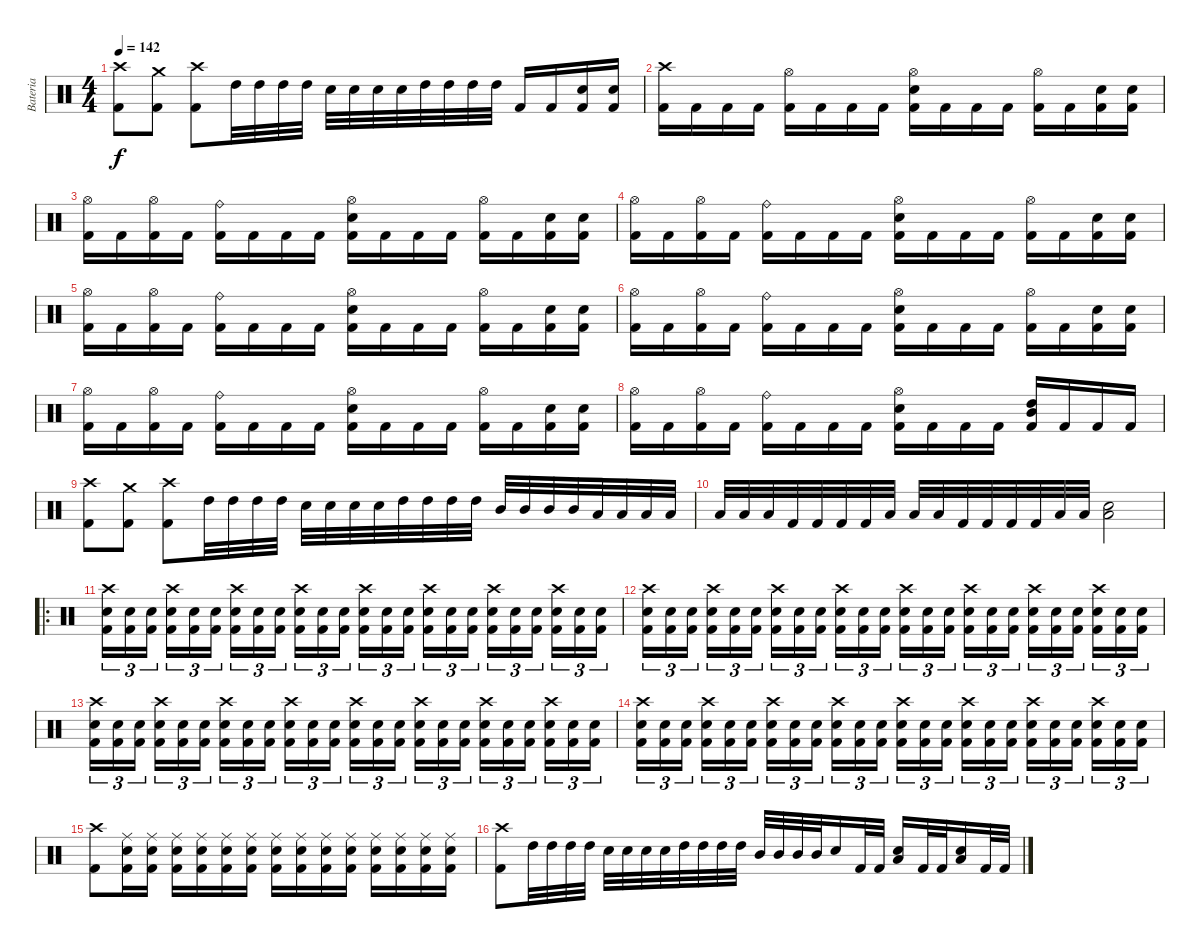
\track ("Bateria" "Bateria") {instrument percussion}
\staff {score}
\articulation defaults
\ts (4 4)
\tempo 142
\clef neutral
\ks c
("Crash high (hit)" "Kick (hit) 2").8{dy f} ("Crash medium (hit)" "Kick (hit) 2").8 ("Crash high (hit)" "Kick (hit) 2").8 "High Tom (hit)".32 "High Tom (hit)".32 "High Tom (hit)".32 "High Tom (hit)".32 "Electric Snare (hit)".32 "Electric Snare (hit)".32 "Electric Snare (hit)".32 "Electric Snare (hit)".32 "High Tom (hit)".32 "High Tom (hit)".32 "High Tom (hit)".32 "High Tom (hit)".32 "Kick (hit) 2".16 "Kick (hit) 2".16 ("Electric Snare (hit)" "Kick (hit) 2").16 ("Electric Snare (hit)" "Kick (hit) 2").16 |
("Crash high (hit)" "Kick (hit) 2").16 "Kick (hit) 2".16 "Kick (hit) 2".16 "Kick (hit) 2".16 ("Hi-Hat (open)" "Kick (hit) 2").16 "Kick (hit) 2".16 "Kick (hit) 2".16 "Kick (hit) 2".16 ("Hi-Hat (open)" "Electric Snare (hit)" "Kick (hit) 2").16 "Kick (hit) 2".16 "Kick (hit) 2".16 "Kick (hit) 2".16 ("Hi-Hat (open)" "Kick (hit) 2").16 "Kick (hit) 2".16 ("Electric Snare (hit)" "Kick (hit) 2").16 ("Electric Snare (hit)" "Kick (hit) 2").16 |
("Hi-Hat (open)" "Kick (hit) 2").16 "Kick (hit) 2".16 ("Hi-Hat (open)" "Kick (hit) 2").16 "Kick (hit) 2".16 ("Ride (bell)" "Kick (hit) 2").16 "Kick (hit) 2".16 "Kick (hit) 2".16 "Kick (hit) 2".16 ("Hi-Hat (open)" "Electric Snare (hit)" "Kick (hit) 2").16 "Kick (hit) 2".16 "Kick (hit) 2".16 "Kick (hit) 2".16 ("Hi-Hat (open)" "Kick (hit) 2").16 "Kick (hit) 2".16 ("Electric Snare (hit)" "Kick (hit) 2").16 ("Electric Snare (hit)" "Kick (hit) 2").16 |
("Hi-Hat (open)" "Kick (hit) 2").16 "Kick (hit) 2".16 ("Hi-Hat (open)" "Kick (hit) 2").16 "Kick (hit) 2".16 ("Ride (bell)" "Kick (hit) 2").16 "Kick (hit) 2".16 "Kick (hit) 2".16 "Kick (hit) 2".16 ("Hi-Hat (open)" "Electric Snare (hit)" "Kick (hit) 2").16 "Kick (hit) 2".16 "Kick (hit) 2".16 "Kick (hit) 2".16 ("Hi-Hat (open)" "Kick (hit) 2").16 "Kick (hit) 2".16 ("Electric Snare (hit)" "Kick (hit) 2").16 ("Electric Snare (hit)" "Kick (hit) 2").16 |
("Hi-Hat (open)" "Kick (hit) 2").16 "Kick (hit) 2".16 ("Hi-Hat (open)" "Kick (hit) 2").16 "Kick (hit) 2".16 ("Ride (bell)" "Kick (hit) 2").16 "Kick (hit) 2".16 "Kick (hit) 2".16 "Kick (hit) 2".16 ("Hi-Hat (open)" "Electric Snare (hit)" "Kick (hit) 2").16 "Kick (hit) 2".16 "Kick (hit) 2".16 "Kick (hit) 2".16 ("Hi-Hat (open)" "Kick (hit) 2").16 "Kick (hit) 2".16 ("Electric Snare (hit)" "Kick (hit) 2").16 ("Electric Snare (hit)" "Kick (hit) 2").16 |
("Hi-Hat (open)" "Kick (hit) 2").16 "Kick (hit) 2".16 ("Hi-Hat (open)" "Kick (hit) 2").16 "Kick (hit) 2".16 ("Ride (bell)" "Kick (hit) 2").16 "Kick (hit) 2".16 "Kick (hit) 2".16 "Kick (hit) 2".16 ("Hi-Hat (open)" "Electric Snare (hit)" "Kick (hit) 2").16 "Kick (hit) 2".16 "Kick (hit) 2".16 "Kick (hit) 2".16 ("Hi-Hat (open)" "Kick (hit) 2").16 "Kick (hit) 2".16 ("Electric Snare (hit)" "Kick (hit) 2").16 ("Electric Snare (hit)" "Kick (hit) 2").16 |
("Hi-Hat (open)" "Kick (hit) 2").16 "Kick (hit) 2".16 ("Hi-Hat (open)" "Kick (hit) 2").16 "Kick (hit) 2".16 ("Ride (bell)" "Kick (hit) 2").16 "Kick (hit) 2".16 "Kick (hit) 2".16 "Kick (hit) 2".16 ("Hi-Hat (open)" "Electric Snare (hit)" "Kick (hit) 2").16 "Kick (hit) 2".16 "Kick (hit) 2".16 "Kick (hit) 2".16 ("Hi-Hat (open)" "Kick (hit) 2").16 "Kick (hit) 2".16 ("Electric Snare (hit)" "Kick (hit) 2").16 ("Electric Snare (hit)" "Kick (hit) 2").16 |
("Hi-Hat (open)" "Kick (hit) 2").16 "Kick (hit) 2".16 ("Hi-Hat (open)" "Kick (hit) 2").16 "Kick (hit) 2".16 ("Ride (bell)" "Kick (hit) 2").16 "Kick (hit) 2".16 "Kick (hit) 2".16 "Kick (hit) 2".16 ("Hi-Hat (open)" "Electric Snare (hit)" "Kick (hit) 2").16 "Kick (hit) 2".16 "Kick (hit) 2".16 "Kick (hit) 2".16 ("High Tom (hit)" "Mid Tom (hit)" "Kick (hit) 2").16 "Kick (hit) 2".16 "Kick (hit) 2".16 "Kick (hit) 2".16 |
("Crash high (hit)" "Kick (hit) 2").8 ("Crash medium (hit)" "Kick (hit) 2").8 ("Crash high (hit)" "Kick (hit) 2").8 "High Tom (hit)".32 "High Tom (hit)".32 "High Tom (hit)".32 "High Tom (hit)".32 "Electric Snare (hit)".32 "Electric Snare (hit)".32 "Electric Snare (hit)".32 "Electric Snare (hit)".32 "High Tom (hit)".32 "High Tom (hit)".32 "High Tom (hit)".32 "High Tom (hit)".32 "Mid Tom (hit)".32 "Mid Tom (hit)".32 "Mid Tom (hit)".32 "Mid Tom (hit)".32 "Low Tom (hit)".32 "Low Tom (hit)".32 "Low Tom (hit)".32 "Low Tom (hit)".32 |
"Low Tom (hit)".32 "Low Tom (hit)".32 "Low Tom (hit)".32 "Kick (hit) 2".32 "Kick (hit) 2".32 "Kick (hit) 2".32 "Kick (hit) 2".32 "Low Tom (hit)".32 "Low Tom (hit)".32 "Low Tom (hit)".32 "Kick (hit) 2".32 "Kick (hit) 2".32 "Kick (hit) 2".32 "Kick (hit) 2".32 "Low Tom (hit)".32 "Low Tom (hit)".32 ("Low Tom (hit)" "Electric Snare (hit)").2 |
\ro
("Crash high (hit)" "Electric Snare (hit)" "Kick (hit) 2").16{tu (3 2)} ("Electric Snare (hit)" "Kick (hit) 2").16{tu (3 2)} ("Electric Snare (hit)" "Kick (hit) 2").16{tu (3 2) beam splitsecondary} ("Crash high (hit)" "Electric Snare (hit)" "Kick (hit) 2").16{tu (3 2)} ("Electric Snare (hit)" "Kick (hit) 2").16{tu (3 2)} ("Electric Snare (hit)" "Kick (hit) 2").16{tu (3 2)} ("Crash high (hit)" "Electric Snare (hit)" "Kick (hit) 2").16{tu (3 2)} ("Electric Snare (hit)" "Kick (hit) 2").16{tu (3 2)} ("Electric Snare (hit)" "Kick (hit) 2").16{tu (3 2) beam splitsecondary} ("Crash high (hit)" "Electric Snare (hit)" "Kick (hit) 2").16{tu (3 2)} ("Electric Snare (hit)" "Kick (hit) 2").16{tu (3 2)} ("Electric Snare (hit)" "Kick (hit) 2").16{tu (3 2)} ("Crash high (hit)" "Electric Snare (hit)" "Kick (hit) 2").16{tu (3 2)} ("Electric Snare (hit)" "Kick (hit) 2").16{tu (3 2)} ("Electric Snare (hit)" "Kick (hit) 2").16{tu (3 2) beam splitsecondary} ("Crash high (hit)" "Electric Snare (hit)" "Kick (hit) 2").16{tu (3 2)} ("Electric Snare (hit)" "Kick (hit) 2").16{tu (3 2)} ("Electric Snare (hit)" "Kick (hit) 2").16{tu (3 2)} ("Crash high (hit)" "Electric Snare (hit)" "Kick (hit) 2").16{tu (3 2)} ("Electric Snare (hit)" "Kick (hit) 2").16{tu (3 2)} ("Electric Snare (hit)" "Kick (hit) 2").16{tu (3 2) beam splitsecondary} ("Crash high (hit)" "Electric Snare (hit)" "Kick (hit) 2").16{tu (3 2)} ("Electric Snare (hit)" "Kick (hit) 2").16{tu (3 2)} ("Electric Snare (hit)" "Kick (hit) 2").16{tu (3 2)} |
("Crash high (hit)" "Electric Snare (hit)" "Kick (hit) 2").16{tu (3 2)} ("Electric Snare (hit)" "Kick (hit) 2").16{tu (3 2)} ("Electric Snare (hit)" "Kick (hit) 2").16{tu (3 2) beam splitsecondary} ("Crash high (hit)" "Electric Snare (hit)" "Kick (hit) 2").16{tu (3 2)} ("Electric Snare (hit)" "Kick (hit) 2").16{tu (3 2)} ("Electric Snare (hit)" "Kick (hit) 2").16{tu (3 2)} ("Crash high (hit)" "Electric Snare (hit)" "Kick (hit) 2").16{tu (3 2)} ("Electric Snare (hit)" "Kick (hit) 2").16{tu (3 2)} ("Electric Snare (hit)" "Kick (hit) 2").16{tu (3 2) beam splitsecondary} ("Crash high (hit)" "Electric Snare (hit)" "Kick (hit) 2").16{tu (3 2)} ("Electric Snare (hit)" "Kick (hit) 2").16{tu (3 2)} ("Electric Snare (hit)" "Kick (hit) 2").16{tu (3 2)} ("Crash high (hit)" "Electric Snare (hit)" "Kick (hit) 2").16{tu (3 2)} ("Electric Snare (hit)" "Kick (hit) 2").16{tu (3 2)} ("Electric Snare (hit)" "Kick (hit) 2").16{tu (3 2) beam splitsecondary} ("Crash high (hit)" "Electric Snare (hit)" "Kick (hit) 2").16{tu (3 2)} ("Electric Snare (hit)" "Kick (hit) 2").16{tu (3 2)} ("Electric Snare (hit)" "Kick (hit) 2").16{tu (3 2)} ("Crash high (hit)" "Electric Snare (hit)" "Kick (hit) 2").16{tu (3 2)} ("Electric Snare (hit)" "Kick (hit) 2").16{tu (3 2)} ("Electric Snare (hit)" "Kick (hit) 2").16{tu (3 2) beam splitsecondary} ("Crash high (hit)" "Electric Snare (hit)" "Kick (hit) 2").16{tu (3 2)} ("Electric Snare (hit)" "Kick (hit) 2").16{tu (3 2)} ("Electric Snare (hit)" "Kick (hit) 2").16{tu (3 2)} |
("Crash high (hit)" "Electric Snare (hit)" "Kick (hit) 2").16{tu (3 2)} ("Electric Snare (hit)" "Kick (hit) 2").16{tu (3 2)} ("Electric Snare (hit)" "Kick (hit) 2").16{tu (3 2) beam splitsecondary} ("Crash high (hit)" "Electric Snare (hit)" "Kick (hit) 2").16{tu (3 2)} ("Electric Snare (hit)" "Kick (hit) 2").16{tu (3 2)} ("Electric Snare (hit)" "Kick (hit) 2").16{tu (3 2)} ("Crash high (hit)" "Electric Snare (hit)" "Kick (hit) 2").16{tu (3 2)} ("Electric Snare (hit)" "Kick (hit) 2").16{tu (3 2)} ("Electric Snare (hit)" "Kick (hit) 2").16{tu (3 2) beam splitsecondary} ("Crash high (hit)" "Electric Snare (hit)" "Kick (hit) 2").16{tu (3 2)} ("Electric Snare (hit)" "Kick (hit) 2").16{tu (3 2)} ("Electric Snare (hit)" "Kick (hit) 2").16{tu (3 2)} ("Crash high (hit)" "Electric Snare (hit)" "Kick (hit) 2").16{tu (3 2)} ("Electric Snare (hit)" "Kick (hit) 2").16{tu (3 2)} ("Electric Snare (hit)" "Kick (hit) 2").16{tu (3 2) beam splitsecondary} ("Crash high (hit)" "Electric Snare (hit)" "Kick (hit) 2").16{tu (3 2)} ("Electric Snare (hit)" "Kick (hit) 2").16{tu (3 2)} ("Electric Snare (hit)" "Kick (hit) 2").16{tu (3 2)} ("Crash high (hit)" "Electric Snare (hit)" "Kick (hit) 2").16{tu (3 2)} ("Electric Snare (hit)" "Kick (hit) 2").16{tu (3 2)} ("Electric Snare (hit)" "Kick (hit) 2").16{tu (3 2) beam splitsecondary} ("Crash high (hit)" "Electric Snare (hit)" "Kick (hit) 2").16{tu (3 2)} ("Electric Snare (hit)" "Kick (hit) 2").16{tu (3 2)} ("Electric Snare (hit)" "Kick (hit) 2").16{tu (3 2)} |
("Crash high (hit)" "Electric Snare (hit)" "Kick (hit) 2").16{tu (3 2)} ("Electric Snare (hit)" "Kick (hit) 2").16{tu (3 2)} ("Electric Snare (hit)" "Kick (hit) 2").16{tu (3 2) beam splitsecondary} ("Crash high (hit)" "Electric Snare (hit)" "Kick (hit) 2").16{tu (3 2)} ("Electric Snare (hit)" "Kick (hit) 2").16{tu (3 2)} ("Electric Snare (hit)" "Kick (hit) 2").16{tu (3 2)} ("Crash high (hit)" "Electric Snare (hit)" "Kick (hit) 2").16{tu (3 2)} ("Electric Snare (hit)" "Kick (hit) 2").16{tu (3 2)} ("Electric Snare (hit)" "Kick (hit) 2").16{tu (3 2) beam splitsecondary} ("Crash high (hit)" "Electric Snare (hit)" "Kick (hit) 2").16{tu (3 2)} ("Electric Snare (hit)" "Kick (hit) 2").16{tu (3 2)} ("Electric Snare (hit)" "Kick (hit) 2").16{tu (3 2)} ("Crash high (hit)" "Electric Snare (hit)" "Kick (hit) 2").16{tu (3 2)} ("Electric Snare (hit)" "Kick (hit) 2").16{tu (3 2)} ("Electric Snare (hit)" "Kick (hit) 2").16{tu (3 2) beam splitsecondary} ("Crash high (hit)" "Electric Snare (hit)" "Kick (hit) 2").16{tu (3 2)} ("Electric Snare (hit)" "Kick (hit) 2").16{tu (3 2)} ("Electric Snare (hit)" "Kick (hit) 2").16{tu (3 2)} ("Crash high (hit)" "Electric Snare (hit)" "Kick (hit) 2").16{tu (3 2)} ("Electric Snare (hit)" "Kick (hit) 2").16{tu (3 2)} ("Electric Snare (hit)" "Kick (hit) 2").16{tu (3 2) beam splitsecondary} ("Crash high (hit)" "Electric Snare (hit)" "Kick (hit) 2").16{tu (3 2)} ("Electric Snare (hit)" "Kick (hit) 2").16{tu (3 2)} ("Electric Snare (hit)" "Kick (hit) 2").16{tu (3 2)} |
("Crash high (hit)" "Kick (hit) 2").8 ("Ride (middle)" "Electric Snare (hit)" "Kick (hit) 2").16 ("Ride (middle)" "Electric Snare (hit)" "Kick (hit) 2").16 ("Ride (middle)" "Electric Snare (hit)" "Kick (hit) 2").16 ("Ride (middle)" "Electric Snare (hit)" "Kick (hit) 2").16 ("Ride (middle)" "Electric Snare (hit)" "Kick (hit) 2").16 ("Ride (middle)" "Electric Snare (hit)" "Kick (hit) 2").16 ("Ride (middle)" "Electric Snare (hit)" "Kick (hit) 2").16 ("Ride (middle)" "Electric Snare (hit)" "Kick (hit) 2").16 ("Ride (middle)" "Electric Snare (hit)" "Kick (hit) 2").16 ("Ride (middle)" "Electric Snare (hit)" "Kick (hit) 2").16 ("Ride (middle)" "Electric Snare (hit)" "Kick (hit) 2").16 ("Ride (middle)" "Electric Snare (hit)" "Kick (hit) 2").16 ("Ride (middle)" "Electric Snare (hit)" "Kick (hit) 2").16 ("Ride (middle)" "Electric Snare (hit)" "Kick (hit) 2").16 |
("Crash high (hit)" "Kick (hit) 2").8 "High Tom (hit)".32 "High Tom (hit)".32 "High Tom (hit)".32 "High Tom (hit)".32 "Electric Snare (hit)".32 "Electric Snare (hit)".32 "Electric Snare (hit)".32 "Electric Snare (hit)".32 "High Tom (hit)".32 "High Tom (hit)".32 "High Tom (hit)".32 "High Tom (hit)".32 "Mid Tom (hit)".32 "Mid Tom (hit)".32 "Mid Tom (hit)".32 "Mid Tom (hit)".32 "Electric Snare (hit)".16 "Kick (hit) 2".32 "Kick (hit) 2".32 ("Low Tom (hit)" "Electric Snare (hit)").16 "Kick (hit) 2".32 "Kick (hit) 2".32 ("Low Tom (hit)" "Electric Snare (hit)").16 "Kick (hit) 2".32 "Kick (hit) 2".32
